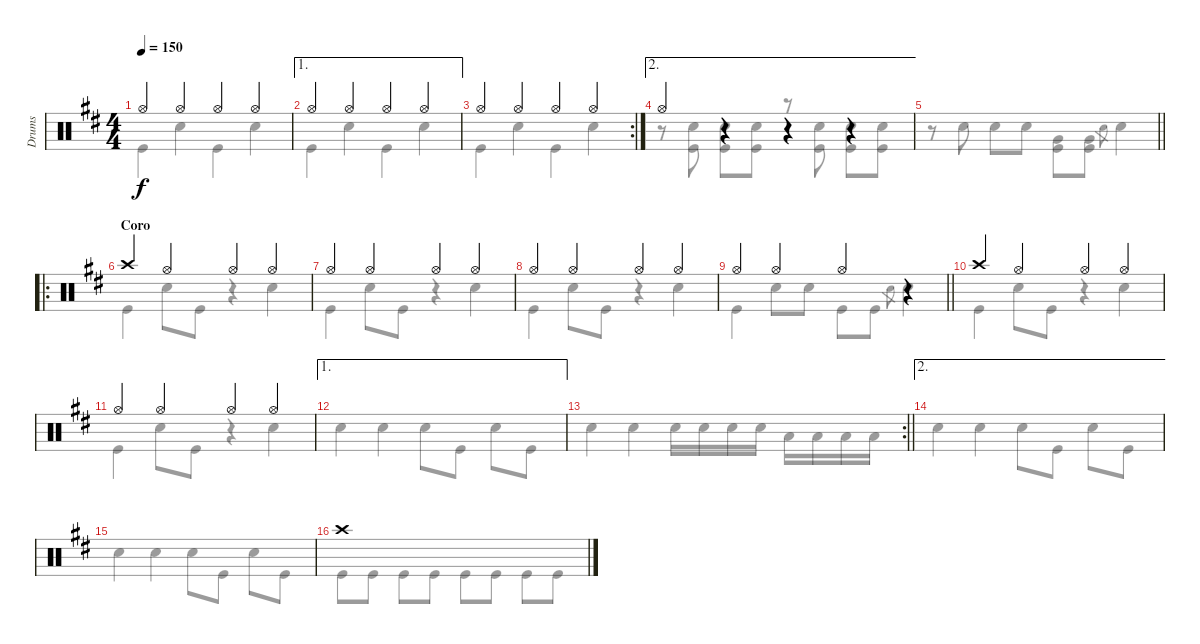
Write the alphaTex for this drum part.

\track ("Drums" "Drums") {instrument percussion}
\staff {score}
\articulation defaults
\voice
\ts (4 4)
\tempo 150
\clef neutral
\ks bminor "Hi-Hat (open)".4{dy f} "Hi-Hat (open)".4 "Hi-Hat (open)".4 "Hi-Hat (open)".4
|
\ae 1 "Hi-Hat (open)".4 "Hi-Hat (open)".4 "Hi-Hat (open)".4 "Hi-Hat (open)".4
|
\rc 2 "Hi-Hat (open)".4 "Hi-Hat (open)".4 "Hi-Hat (open)".4 "Hi-Hat (open)".4
|
\ae 2 "Hi-Hat (open)".4
r.4 r.4 r.4 |
\barLineRight lightlight
|
\ro
\section ("" "Coro")
"Crash high (hit)".4 "Hi-Hat (open)".4 "Hi-Hat (open)".4 "Hi-Hat (open)".4 |
"Hi-Hat (open)".4 "Hi-Hat (open)".4 "Hi-Hat (open)".4 "Hi-Hat (open)".4 |
"Hi-Hat (open)".4 "Hi-Hat (open)".4 "Hi-Hat (open)".4 "Hi-Hat (open)".4 |
\barLineRight lightlight "Hi-Hat (open)".4 "Hi-Hat (open)".4 "Hi-Hat (open)".4
r.4 |
"Crash high (hit)".4 "Hi-Hat (open)".4 "Hi-Hat (open)".4 "Hi-Hat (open)".4 |
"Hi-Hat (open)".4 "Hi-Hat (open)".4 "Hi-Hat (open)".4 "Hi-Hat (open)".4 |
\ae 1
|
\rc 2
\barLineRight lightlight
|
\ae 2
|
|
"Crash high (hit)".1
\voice
\clef neutral
\ottava regular
\simile none
\ks bminor "Kick (hit)".4{dy f} "Snare (hit) 2".4 "Kick (hit)".4 "Snare (hit) 2".4
|
"Kick (hit)".4 "Snare (hit) 2".4 "Kick (hit)".4 "Snare (hit) 2".4 |
"Kick (hit)".4 "Snare (hit) 2".4 "Kick (hit)".4 "Snare (hit) 2".4 |
r.8 ("Snare (hit) 2" "Kick (hit)").8 ("Snare (hit) 2" "Kick (hit)").8 ("Snare (hit) 2" "Kick (hit)").8 r.8 ("Snare (hit) 2" "Kick (hit)").8 ("Snare (hit) 2" "Kick (hit)").8 ("Snare (hit) 2" "Kick (hit)").8 |
\barLineRight lightlight
r.8 "Snare (hit) 2".8 "Snare (hit) 2".8 "Snare (hit) 2".8 ("Very Low Tom (hit)" "Kick (hit)").8 ("Very Low Tom (hit)" "Kick (hit)").8 "Snare (hit) 2".8{gr} "Snare (hit) 2".4 |
"Kick (hit)".4 "Snare (hit) 2".8 "Kick (hit)".8 r.4 "Snare (hit) 2".4 |
"Kick (hit)".4 "Snare (hit) 2".8 "Kick (hit)".8 r.4 "Snare (hit) 2".4 |
"Kick (hit)".4 "Snare (hit) 2".8 "Kick (hit)".8 r.4 "Snare (hit) 2".4 |
\barLineRight lightlight "Kick (hit)".4 "Snare (hit) 2".8 "Snare (hit) 2".8 "Kick (hit)".8 "Kick (hit)".8 "Snare (hit) 2".8{gr} "Snare (hit) 2".4
|
"Kick (hit)".4 "Snare (hit) 2".8 "Kick (hit)".8 r.4 "Snare (hit) 2".4 |
"Kick (hit)".4 "Snare (hit) 2".8 "Kick (hit)".8 r.4 "Snare (hit) 2".4 |
"Snare (hit) 2".4 "Snare (hit) 2".4 "Snare (hit) 2".8 "Kick (hit)".8 "Snare (hit) 2".8 "Kick (hit)".8 |
\barLineRight lightlight "Snare (hit) 2".4 "Snare (hit) 2".4 "Snare (hit) 2".16 "Snare (hit) 2".16 "Snare (hit) 2".16 "Snare (hit) 2".16 "Low Tom (hit)".16 "Low Tom (hit)".16 "Low Tom (hit)".16 "Low Tom (hit)".16
|
"Snare (hit) 2".4 "Snare (hit) 2".4 "Snare (hit) 2".8 "Kick (hit)".8 "Snare (hit) 2".8 "Kick (hit)".8 |
"Snare (hit) 2".4 "Snare (hit) 2".4 "Snare (hit) 2".8 "Kick (hit)".8 "Snare (hit) 2".8 "Kick (hit)".8 |
"Kick (hit)".8 "Kick (hit)".8 "Kick (hit)".8 "Kick (hit)".8 "Kick (hit)".8 "Kick (hit)".8 "Kick (hit)".8 "Kick (hit)".8
